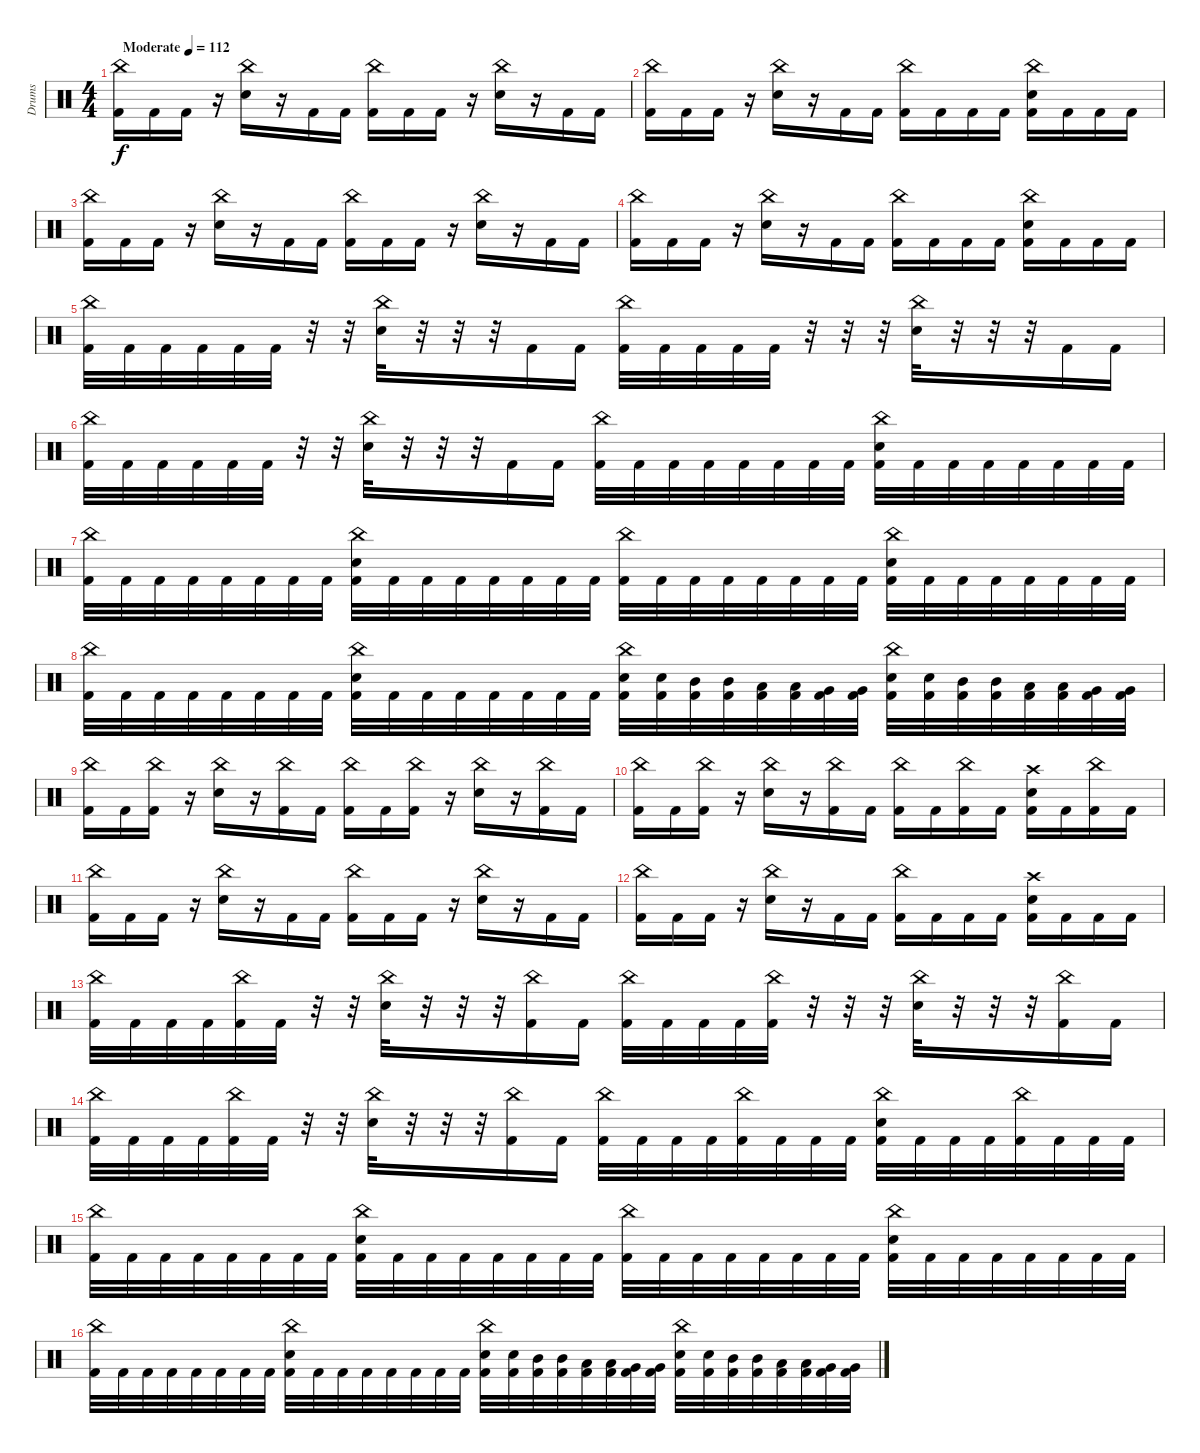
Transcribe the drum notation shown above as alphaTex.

\track ("Drums" "Drums") {instrument percussion}
\staff {score}
\articulation defaults
\ts (4 4)
\tempo (112 "Moderate")
\clef neutral
\ks c
("China (hit)" "Kick (hit) 2").16{dy f} "Kick (hit) 2".16 "Kick (hit) 2".16 r.16 ("China (hit)" "Electric Snare (hit)").16 r.16 "Kick (hit) 2".16 "Kick (hit) 2".16 ("China (hit)" "Kick (hit) 2").16 "Kick (hit) 2".16 "Kick (hit) 2".16 r.16 ("China (hit)" "Electric Snare (hit)").16 r.16 "Kick (hit) 2".16 "Kick (hit) 2".16 |
("China (hit)" "Kick (hit) 2").16 "Kick (hit) 2".16 "Kick (hit) 2".16 r.16 ("China (hit)" "Electric Snare (hit)").16 r.16 "Kick (hit) 2".16 "Kick (hit) 2".16 ("China (hit)" "Kick (hit) 2").16 "Kick (hit) 2".16 "Kick (hit) 2".16 "Kick (hit) 2".16 ("China (hit)" "Electric Snare (hit)" "Kick (hit) 2").16 "Kick (hit) 2".16 "Kick (hit) 2".16 "Kick (hit) 2".16 |
("China (hit)" "Kick (hit) 2").16 "Kick (hit) 2".16 "Kick (hit) 2".16 r.16 ("China (hit)" "Electric Snare (hit)").16 r.16 "Kick (hit) 2".16 "Kick (hit) 2".16 ("China (hit)" "Kick (hit) 2").16 "Kick (hit) 2".16 "Kick (hit) 2".16 r.16 ("China (hit)" "Electric Snare (hit)").16 r.16 "Kick (hit) 2".16 "Kick (hit) 2".16 |
("China (hit)" "Kick (hit) 2").16 "Kick (hit) 2".16 "Kick (hit) 2".16 r.16 ("China (hit)" "Electric Snare (hit)").16 r.16 "Kick (hit) 2".16 "Kick (hit) 2".16 ("China (hit)" "Kick (hit) 2").16 "Kick (hit) 2".16 "Kick (hit) 2".16 "Kick (hit) 2".16 ("China (hit)" "Electric Snare (hit)" "Kick (hit) 2").16 "Kick (hit) 2".16 "Kick (hit) 2".16 "Kick (hit) 2".16 |
("China (hit)" "Kick (hit) 2").32 "Kick (hit) 2".32 "Kick (hit) 2".32 "Kick (hit) 2".32 "Kick (hit) 2".32 "Kick (hit) 2".32 r.32 r.32 ("China (hit)" "Electric Snare (hit)").32 r.32 r.32 r.32 "Kick (hit) 2".16 "Kick (hit) 2".16 ("China (hit)" "Kick (hit) 2").32 "Kick (hit) 2".32 "Kick (hit) 2".32 "Kick (hit) 2".32 "Kick (hit) 2".32 r.32 r.32 r.32 ("China (hit)" "Electric Snare (hit)").32 r.32 r.32 r.32 "Kick (hit) 2".16 "Kick (hit) 2".16 |
("China (hit)" "Kick (hit) 2").32 "Kick (hit) 2".32 "Kick (hit) 2".32 "Kick (hit) 2".32 "Kick (hit) 2".32 "Kick (hit) 2".32 r.32 r.32 ("China (hit)" "Electric Snare (hit)").32 r.32 r.32 r.32 "Kick (hit) 2".16 "Kick (hit) 2".16 ("China (hit)" "Kick (hit) 2").32 "Kick (hit) 2".32 "Kick (hit) 2".32 "Kick (hit) 2".32 "Kick (hit) 2".32 "Kick (hit) 2".32 "Kick (hit) 2".32 "Kick (hit) 2".32 ("China (hit)" "Electric Snare (hit)" "Kick (hit) 2").32 "Kick (hit) 2".32 "Kick (hit) 2".32 "Kick (hit) 2".32 "Kick (hit) 2".32 "Kick (hit) 2".32 "Kick (hit) 2".32 "Kick (hit) 2".32 |
("China (hit)" "Kick (hit) 2").32 "Kick (hit) 2".32 "Kick (hit) 2".32 "Kick (hit) 2".32 "Kick (hit) 2".32 "Kick (hit) 2".32 "Kick (hit) 2".32 "Kick (hit) 2".32 ("China (hit)" "Electric Snare (hit)" "Kick (hit) 2").32 "Kick (hit) 2".32 "Kick (hit) 2".32 "Kick (hit) 2".32 "Kick (hit) 2".32 "Kick (hit) 2".32 "Kick (hit) 2".32 "Kick (hit) 2".32 ("China (hit)" "Kick (hit) 2").32 "Kick (hit) 2".32 "Kick (hit) 2".32 "Kick (hit) 2".32 "Kick (hit) 2".32 "Kick (hit) 2".32 "Kick (hit) 2".32 "Kick (hit) 2".32 ("China (hit)" "Electric Snare (hit)" "Kick (hit) 2").32 "Kick (hit) 2".32 "Kick (hit) 2".32 "Kick (hit) 2".32 "Kick (hit) 2".32 "Kick (hit) 2".32 "Kick (hit) 2".32 "Kick (hit) 2".32 |
("China (hit)" "Kick (hit) 2").32 "Kick (hit) 2".32 "Kick (hit) 2".32 "Kick (hit) 2".32 "Kick (hit) 2".32 "Kick (hit) 2".32 "Kick (hit) 2".32 "Kick (hit) 2".32 ("China (hit)" "Electric Snare (hit)" "Kick (hit) 2").32 "Kick (hit) 2".32 "Kick (hit) 2".32 "Kick (hit) 2".32 "Kick (hit) 2".32 "Kick (hit) 2".32 "Kick (hit) 2".32 "Kick (hit) 2".32 ("China (hit)" "Electric Snare (hit)" "Kick (hit) 2").32 ("Electric Snare (hit)" "Kick (hit) 2").32 ("Mid Tom (hit)" "Kick (hit) 2").32 ("Mid Tom (hit)" "Kick (hit) 2").32 ("Low Tom (hit)" "Kick (hit) 2").32 ("Low Tom (hit)" "Kick (hit) 2").32 ("Very Low Tom (hit)" "Kick (hit) 2").32 ("Very Low Tom (hit)" "Kick (hit) 2").32 ("China (hit)" "Electric Snare (hit)" "Kick (hit) 2").32 ("Electric Snare (hit)" "Kick (hit) 2").32 ("Mid Tom (hit)" "Kick (hit) 2").32 ("Mid Tom (hit)" "Kick (hit) 2").32 ("Low Tom (hit)" "Kick (hit) 2").32 ("Low Tom (hit)" "Kick (hit) 2").32 ("Very Low Tom (hit)" "Kick (hit) 2").32 ("Very Low Tom (hit)" "Kick (hit) 2").32 |
("China (hit)" "Kick (hit) 2").16 "Kick (hit) 2".16 ("China (hit)" "Kick (hit) 2").16 r.16 ("China (hit)" "Electric Snare (hit)").16 r.16 ("China (hit)" "Kick (hit) 2").16 "Kick (hit) 2".16 ("China (hit)" "Kick (hit) 2").16 "Kick (hit) 2".16 ("China (hit)" "Kick (hit) 2").16 r.16 ("China (hit)" "Electric Snare (hit)").16 r.16 ("China (hit)" "Kick (hit) 2").16 "Kick (hit) 2".16 |
("China (hit)" "Kick (hit) 2").16 "Kick (hit) 2".16 ("China (hit)" "Kick (hit) 2").16 r.16 ("China (hit)" "Electric Snare (hit)").16 r.16 ("China (hit)" "Kick (hit) 2").16 "Kick (hit) 2".16 ("China (hit)" "Kick (hit) 2").16 "Kick (hit) 2".16 ("China (hit)" "Kick (hit) 2").16 "Kick (hit) 2".16 ("Crash high (hit)" "Electric Snare (hit)" "Kick (hit) 2").16 "Kick (hit) 2".16 ("China (hit)" "Kick (hit) 2").16 "Kick (hit) 2".16 |
("China (hit)" "Kick (hit) 2").16 "Kick (hit) 2".16 "Kick (hit) 2".16 r.16 ("China (hit)" "Electric Snare (hit)").16 r.16 "Kick (hit) 2".16 "Kick (hit) 2".16 ("China (hit)" "Kick (hit) 2").16 "Kick (hit) 2".16 "Kick (hit) 2".16 r.16 ("China (hit)" "Electric Snare (hit)").16 r.16 "Kick (hit) 2".16 "Kick (hit) 2".16 |
("China (hit)" "Kick (hit) 2").16 "Kick (hit) 2".16 "Kick (hit) 2".16 r.16 ("China (hit)" "Electric Snare (hit)").16 r.16 "Kick (hit) 2".16 "Kick (hit) 2".16 ("China (hit)" "Kick (hit) 2").16 "Kick (hit) 2".16 "Kick (hit) 2".16 "Kick (hit) 2".16 ("Crash high (hit)" "Electric Snare (hit)" "Kick (hit) 2").16 "Kick (hit) 2".16 "Kick (hit) 2".16 "Kick (hit) 2".16 |
("China (hit)" "Kick (hit) 2").32 "Kick (hit) 2".32 "Kick (hit) 2".32 "Kick (hit) 2".32 ("China (hit)" "Kick (hit) 2").32 "Kick (hit) 2".32 r.32 r.32 ("China (hit)" "Electric Snare (hit)").32 r.32 r.32 r.32 ("China (hit)" "Kick (hit) 2").16 "Kick (hit) 2".16 ("China (hit)" "Kick (hit) 2").32 "Kick (hit) 2".32 "Kick (hit) 2".32 "Kick (hit) 2".32 ("China (hit)" "Kick (hit) 2").32 r.32 r.32 r.32 ("China (hit)" "Electric Snare (hit)").32 r.32 r.32 r.32 ("China (hit)" "Kick (hit) 2").16 "Kick (hit) 2".16 |
("China (hit)" "Kick (hit) 2").32 "Kick (hit) 2".32 "Kick (hit) 2".32 "Kick (hit) 2".32 ("China (hit)" "Kick (hit) 2").32 "Kick (hit) 2".32 r.32 r.32 ("China (hit)" "Electric Snare (hit)").32 r.32 r.32 r.32 ("China (hit)" "Kick (hit) 2").16 "Kick (hit) 2".16 ("China (hit)" "Kick (hit) 2").32 "Kick (hit) 2".32 "Kick (hit) 2".32 "Kick (hit) 2".32 ("China (hit)" "Kick (hit) 2").32 "Kick (hit) 2".32 "Kick (hit) 2".32 "Kick (hit) 2".32 ("China (hit)" "Electric Snare (hit)" "Kick (hit) 2").32 "Kick (hit) 2".32 "Kick (hit) 2".32 "Kick (hit) 2".32 ("China (hit)" "Kick (hit) 2").32 "Kick (hit) 2".32 "Kick (hit) 2".32 "Kick (hit) 2".32 |
("China (hit)" "Kick (hit) 2").32 "Kick (hit) 2".32 "Kick (hit) 2".32 "Kick (hit) 2".32 "Kick (hit) 2".32 "Kick (hit) 2".32 "Kick (hit) 2".32 "Kick (hit) 2".32 ("China (hit)" "Electric Snare (hit)" "Kick (hit) 2").32 "Kick (hit) 2".32 "Kick (hit) 2".32 "Kick (hit) 2".32 "Kick (hit) 2".32 "Kick (hit) 2".32 "Kick (hit) 2".32 "Kick (hit) 2".32 ("China (hit)" "Kick (hit) 2").32 "Kick (hit) 2".32 "Kick (hit) 2".32 "Kick (hit) 2".32 "Kick (hit) 2".32 "Kick (hit) 2".32 "Kick (hit) 2".32 "Kick (hit) 2".32 ("China (hit)" "Electric Snare (hit)" "Kick (hit) 2").32 "Kick (hit) 2".32 "Kick (hit) 2".32 "Kick (hit) 2".32 "Kick (hit) 2".32 "Kick (hit) 2".32 "Kick (hit) 2".32 "Kick (hit) 2".32 |
("China (hit)" "Kick (hit) 2").32 "Kick (hit) 2".32 "Kick (hit) 2".32 "Kick (hit) 2".32 "Kick (hit) 2".32 "Kick (hit) 2".32 "Kick (hit) 2".32 "Kick (hit) 2".32 ("China (hit)" "Electric Snare (hit)" "Kick (hit) 2").32 "Kick (hit) 2".32 "Kick (hit) 2".32 "Kick (hit) 2".32 "Kick (hit) 2".32 "Kick (hit) 2".32 "Kick (hit) 2".32 "Kick (hit) 2".32 ("China (hit)" "Electric Snare (hit)" "Kick (hit) 2").32 ("Electric Snare (hit)" "Kick (hit) 2").32 ("Mid Tom (hit)" "Kick (hit) 2").32 ("Mid Tom (hit)" "Kick (hit) 2").32 ("Low Tom (hit)" "Kick (hit) 2").32 ("Low Tom (hit)" "Kick (hit) 2").32 ("Very Low Tom (hit)" "Kick (hit) 2").32 ("Very Low Tom (hit)" "Kick (hit) 2").32 ("China (hit)" "Electric Snare (hit)" "Kick (hit) 2").32 ("Electric Snare (hit)" "Kick (hit) 2").32 ("Mid Tom (hit)" "Kick (hit) 2").32 ("Mid Tom (hit)" "Kick (hit) 2").32 ("Low Tom (hit)" "Kick (hit) 2").32 ("Low Tom (hit)" "Kick (hit) 2").32 ("Very Low Tom (hit)" "Kick (hit) 2").32 ("Very Low Tom (hit)" "Kick (hit) 2").32
